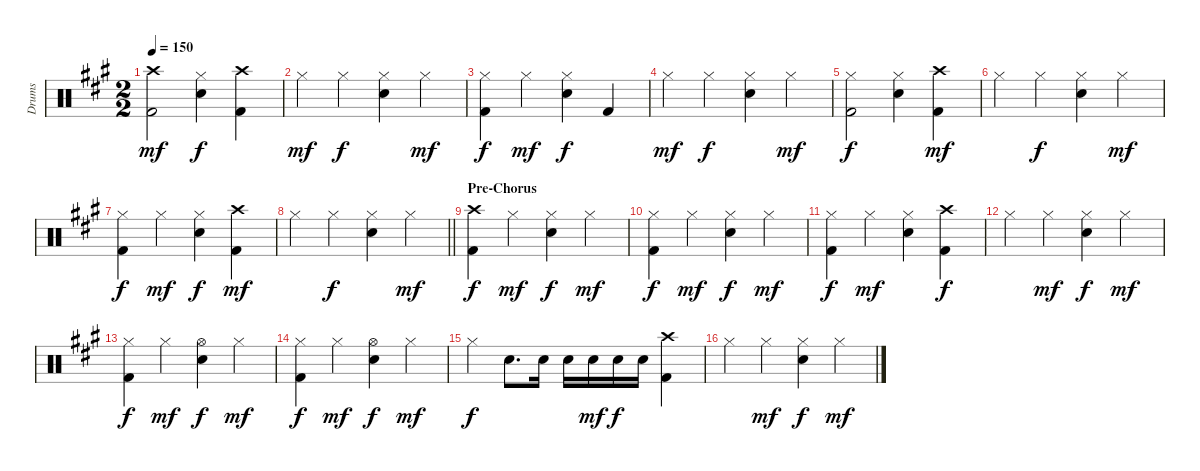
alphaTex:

\track ("Drums" "Drums") {instrument percussion}
\staff {score}
\articulation defaults
\ts (2 2)
\tempo 150
\clef neutral
\ks a
("Crash high (hit)" "Kick (hit) 2").2{dy mf} ("Hi-Hat (closed)" "Electric Snare (hit)").4{dy f} ("Crash high (hit)" "Kick (hit) 2").4 |
"Hi-Hat (closed)".4{dy mf} "Hi-Hat (closed)".4{dy f} ("Hi-Hat (closed)" "Electric Snare (hit)").4 "Hi-Hat (closed)".4{dy mf} |
("Hi-Hat (closed)" "Kick (hit) 2").4{dy f} "Hi-Hat (closed)".4{dy mf} ("Hi-Hat (closed)" "Electric Snare (hit)").4{dy f} "Kick (hit) 2".4 |
"Hi-Hat (closed)".4{dy mf} "Hi-Hat (closed)".4{dy f} ("Hi-Hat (closed)" "Electric Snare (hit)").4 "Hi-Hat (closed)".4{dy mf} |
("Hi-Hat (closed)" "Kick (hit) 2").2{dy f} ("Hi-Hat (closed)" "Electric Snare (hit)").4 ("Crash high (hit)" "Kick (hit) 2").4{dy mf} |
"Hi-Hat (closed)".4 "Hi-Hat (closed)".4{dy f} ("Hi-Hat (closed)" "Electric Snare (hit)").4 "Hi-Hat (closed)".4{dy mf} |
("Hi-Hat (closed)" "Kick (hit) 2").4{dy f} "Hi-Hat (closed)".4{dy mf} ("Hi-Hat (closed)" "Electric Snare (hit)").4{dy f} ("Crash high (hit)" "Kick (hit) 2").4{dy mf} |
\barLineRight lightlight "Hi-Hat (closed)".4 "Hi-Hat (closed)".4{dy f}
("Hi-Hat (closed)" "Electric Snare (hit)").4 "Hi-Hat (closed)".4{dy mf} |
\section ("" "Pre-Chorus")
("Crash high (hit)" "Kick (hit) 2").4{dy f} "Hi-Hat (closed)".4{dy mf} ("Hi-Hat (closed)" "Electric Snare (hit)").4{dy f} "Hi-Hat (closed)".4{dy mf} |
("Hi-Hat (closed)" "Kick (hit) 2").4{dy f} "Hi-Hat (closed)".4{dy mf} ("Hi-Hat (closed)" "Electric Snare (hit)").4{dy f} "Hi-Hat (closed)".4{dy mf} |
("Hi-Hat (closed)" "Kick (hit) 2").4{dy f} "Hi-Hat (closed)".4{dy mf} ("Hi-Hat (closed)" "Electric Snare (hit)").4 ("Crash high (hit)" "Kick (hit) 2").4{dy f} |
"Hi-Hat (closed)".4 "Hi-Hat (closed)".4{dy mf} ("Hi-Hat (closed)" "Electric Snare (hit)").4{dy f} "Hi-Hat (closed)".4{dy mf} |
("Hi-Hat (closed)" "Kick (hit) 2").4{dy f} "Hi-Hat (closed)".4{dy mf} ("Hi-Hat (open)" "Electric Snare (hit)").4{dy f} "Hi-Hat (closed)".4{dy mf} |
("Hi-Hat (closed)" "Kick (hit) 2").4{dy f} "Hi-Hat (closed)".4{dy mf} ("Hi-Hat (open)" "Electric Snare (hit)").4{dy f} "Hi-Hat (closed)".4{dy mf} |
"Hi-Hat (closed)".4{dy f} "Electric Snare (hit)".8{d} "Electric Snare (hit)".16 "Electric Snare (hit)".16 "Electric Snare (hit)".16{dy mf} "Electric Snare (hit)".16{dy f} "Electric Snare (hit)".16 ("Crash high (hit)" "Kick (hit) 2").4 |
"Hi-Hat (closed)".4 "Hi-Hat (closed)".4{dy mf} ("Hi-Hat (closed)" "Electric Snare (hit)").4{dy f} "Hi-Hat (closed)".4{dy mf}
